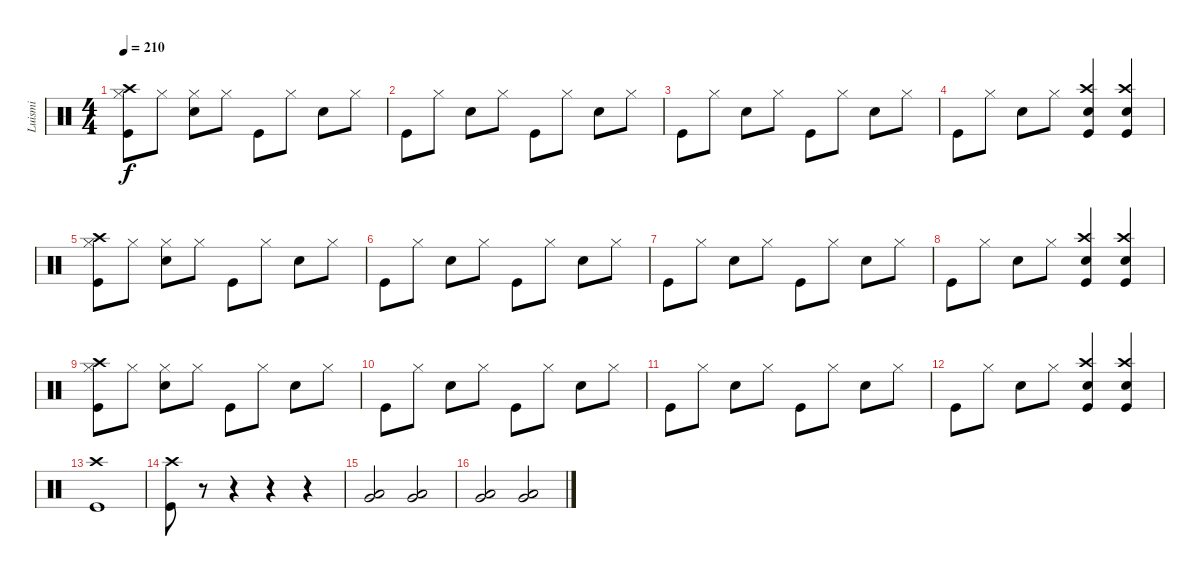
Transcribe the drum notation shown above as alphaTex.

\track ("Luismi" "Luismi") {instrument percussion}
\staff {score}
\articulation defaults
\ts (4 4)
\tempo 210
\clef neutral
\ks c
("Kick (hit)" "Crash high (hit)" "Hi-Hat (closed)").8{dy f} "Hi-Hat (closed)".8 ("Snare (hit) 2" "Hi-Hat (closed)").8 "Hi-Hat (closed)".8 "Kick (hit)".8 "Hi-Hat (closed)".8 "Snare (hit) 2".8 "Hi-Hat (closed)".8 |
"Kick (hit)".8 "Hi-Hat (closed)".8 "Snare (hit) 2".8 "Hi-Hat (closed)".8 "Kick (hit)".8 "Hi-Hat (closed)".8 "Snare (hit) 2".8 "Hi-Hat (closed)".8 |
"Kick (hit)".8 "Hi-Hat (closed)".8 "Snare (hit) 2".8 "Hi-Hat (closed)".8 "Kick (hit)".8 "Hi-Hat (closed)".8 "Snare (hit) 2".8 "Hi-Hat (closed)".8 |
"Kick (hit)".8 "Hi-Hat (closed)".8 "Snare (hit) 2".8 "Hi-Hat (closed)".8 ("Snare (hit) 2" "Kick (hit)" "Crash high (hit)").4 ("Snare (hit) 2" "Kick (hit)" "Crash high (hit)").4 |
("Kick (hit)" "Crash high (hit)" "Hi-Hat (closed)").8 "Hi-Hat (closed)".8 ("Snare (hit) 2" "Hi-Hat (closed)").8 "Hi-Hat (closed)".8 "Kick (hit)".8 "Hi-Hat (closed)".8 "Snare (hit) 2".8 "Hi-Hat (closed)".8 |
"Kick (hit)".8 "Hi-Hat (closed)".8 "Snare (hit) 2".8 "Hi-Hat (closed)".8 "Kick (hit)".8 "Hi-Hat (closed)".8 "Snare (hit) 2".8 "Hi-Hat (closed)".8 |
"Kick (hit)".8 "Hi-Hat (closed)".8 "Snare (hit) 2".8 "Hi-Hat (closed)".8 "Kick (hit)".8 "Hi-Hat (closed)".8 "Snare (hit) 2".8 "Hi-Hat (closed)".8 |
"Kick (hit)".8 "Hi-Hat (closed)".8 "Snare (hit) 2".8 "Hi-Hat (closed)".8 ("Snare (hit) 2" "Kick (hit)" "Crash high (hit)").4 ("Snare (hit) 2" "Kick (hit)" "Crash high (hit)").4 |
("Kick (hit)" "Crash high (hit)" "Hi-Hat (closed)").8 "Hi-Hat (closed)".8 ("Snare (hit) 2" "Hi-Hat (closed)").8 "Hi-Hat (closed)".8 "Kick (hit)".8 "Hi-Hat (closed)".8 "Snare (hit) 2".8 "Hi-Hat (closed)".8 |
"Kick (hit)".8 "Hi-Hat (closed)".8 "Snare (hit) 2".8 "Hi-Hat (closed)".8 "Kick (hit)".8 "Hi-Hat (closed)".8 "Snare (hit) 2".8 "Hi-Hat (closed)".8 |
"Kick (hit)".8 "Hi-Hat (closed)".8 "Snare (hit) 2".8 "Hi-Hat (closed)".8 "Kick (hit)".8 "Hi-Hat (closed)".8 "Snare (hit) 2".8 "Hi-Hat (closed)".8 |
"Kick (hit)".8 "Hi-Hat (closed)".8 "Snare (hit) 2".8 "Hi-Hat (closed)".8 ("Snare (hit) 2" "Kick (hit)" "Crash high (hit)").4 ("Snare (hit) 2" "Kick (hit)" "Crash high (hit)").4 |
("Crash high (hit)" "Kick (hit)").1 |
("Kick (hit)" "Crash high (hit)").8 r.8 r.4 r.4 r.4 |
("Very Low Tom (hit)" "Low Floor Tom (hit)").2 ("Very Low Tom (hit)" "Low Floor Tom (hit)").2 |
("Very Low Tom (hit)" "Low Floor Tom (hit)").2 ("Very Low Tom (hit)" "Low Floor Tom (hit)").2
